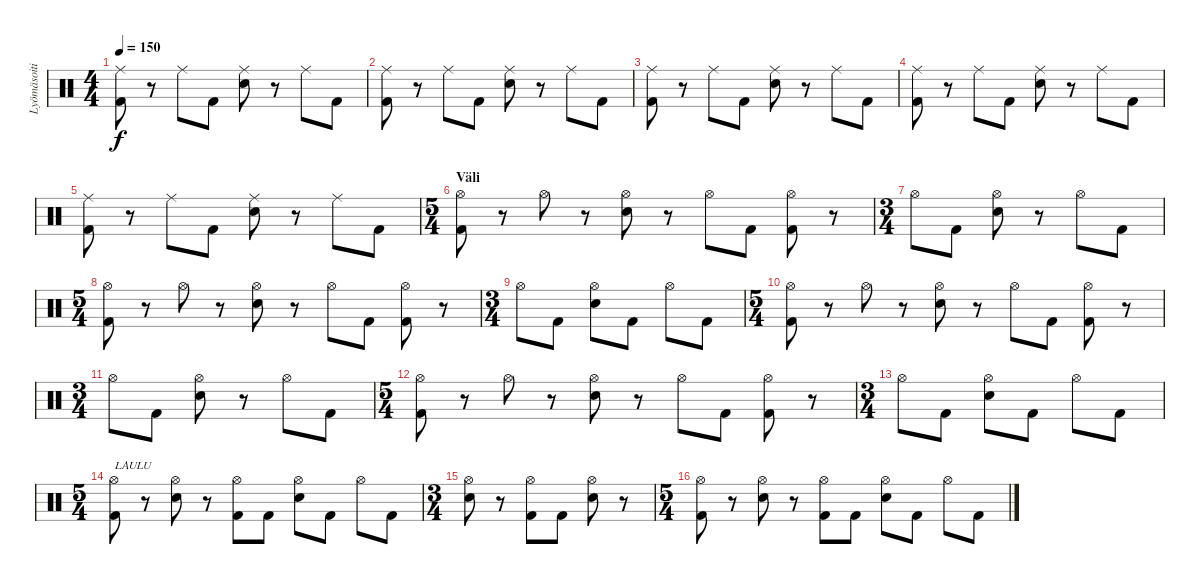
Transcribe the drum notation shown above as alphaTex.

\track ("Lyömäsoitin" "Lyömäsoiti") {instrument percussion}
\staff {score}
\articulation defaults
\ts (4 4)
\tempo 150
\clef neutral
\ks c
("Ride (middle)" "Kick (hit) 2").8{dy f} r.8 "Ride (middle)".8 "Kick (hit) 2".8 ("Ride (middle)" "Electric Snare (hit)").8 r.8 "Ride (middle)".8 "Kick (hit) 2".8 |
("Ride (middle)" "Kick (hit) 2").8 r.8 "Ride (middle)".8 "Kick (hit) 2".8 ("Ride (middle)" "Electric Snare (hit)").8 r.8 "Ride (middle)".8 "Kick (hit) 2".8 |
("Ride (middle)" "Kick (hit) 2").8 r.8 "Ride (middle)".8 "Kick (hit) 2".8 ("Ride (middle)" "Electric Snare (hit)").8 r.8 "Ride (middle)".8 "Kick (hit) 2".8 |
("Ride (middle)" "Kick (hit) 2").8 r.8 "Ride (middle)".8 "Kick (hit) 2".8 ("Ride (middle)" "Electric Snare (hit)").8 r.8 "Ride (middle)".8 "Kick (hit) 2".8 |
("Ride (middle)" "Kick (hit) 2").8 r.8 "Ride (middle)".8 "Kick (hit) 2".8 ("Ride (middle)" "Electric Snare (hit)").8 r.8 "Ride (middle)".8 "Kick (hit) 2".8 |
\ts (5 4)
\section ("" "Väli")
("Hi-Hat (open)" "Kick (hit) 2").8 r.8 "Hi-Hat (open)".8 r.8 ("Hi-Hat (open)" "Electric Snare (hit)").8 r.8 "Hi-Hat (open)".8 "Kick (hit) 2".8 ("Hi-Hat (open)" "Kick (hit) 2").8 r.8 |
\ts (3 4)
"Hi-Hat (open)".8 "Kick (hit) 2".8 ("Hi-Hat (open)" "Electric Snare (hit)").8 r.8 "Hi-Hat (open)".8 "Kick (hit) 2".8 |
\ts (5 4)
("Hi-Hat (open)" "Kick (hit) 2").8 r.8 "Hi-Hat (open)".8 r.8 ("Hi-Hat (open)" "Electric Snare (hit)").8 r.8 "Hi-Hat (open)".8 "Kick (hit) 2".8 ("Hi-Hat (open)" "Kick (hit) 2").8 r.8 |
\ts (3 4)
"Hi-Hat (open)".8 "Kick (hit) 2".8 ("Hi-Hat (open)" "Electric Snare (hit)").8 "Kick (hit) 2".8 "Hi-Hat (open)".8 "Kick (hit) 2".8 |
\ts (5 4)
("Hi-Hat (open)" "Kick (hit) 2").8 r.8 "Hi-Hat (open)".8 r.8 ("Hi-Hat (open)" "Electric Snare (hit)").8 r.8 "Hi-Hat (open)".8 "Kick (hit) 2".8 ("Hi-Hat (open)" "Kick (hit) 2").8 r.8 |
\ts (3 4)
"Hi-Hat (open)".8 "Kick (hit) 2".8 ("Hi-Hat (open)" "Electric Snare (hit)").8 r.8 "Hi-Hat (open)".8 "Kick (hit) 2".8 |
\ts (5 4)
("Hi-Hat (open)" "Kick (hit) 2").8 r.8 "Hi-Hat (open)".8 r.8 ("Hi-Hat (open)" "Electric Snare (hit)").8 r.8 "Hi-Hat (open)".8 "Kick (hit) 2".8 ("Hi-Hat (open)" "Kick (hit) 2").8 r.8 |
\ts (3 4)
"Hi-Hat (open)".8 "Kick (hit) 2".8 ("Hi-Hat (open)" "Electric Snare (hit)").8 "Kick (hit) 2".8 "Hi-Hat (open)".8 "Kick (hit) 2".8 |
\ts (5 4)
("Hi-Hat (open)" "Kick (hit) 2").8{txt "LAULU"} r.8 ("Hi-Hat (open)" "Electric Snare (hit)").8 r.8 ("Hi-Hat (open)" "Kick (hit) 2").8 "Kick (hit) 2".8 ("Hi-Hat (open)" "Electric Snare (hit)").8 "Kick (hit) 2".8 "Hi-Hat (open)".8 "Kick (hit) 2".8 |
\ts (3 4)
("Hi-Hat (open)" "Electric Snare (hit)").8 r.8 ("Hi-Hat (open)" "Kick (hit) 2").8 "Kick (hit) 2".8 ("Hi-Hat (open)" "Electric Snare (hit)").8 r.8 |
\ts (5 4)
("Hi-Hat (open)" "Kick (hit) 2").8 r.8 ("Hi-Hat (open)" "Electric Snare (hit)").8 r.8 ("Hi-Hat (open)" "Kick (hit) 2").8 "Kick (hit) 2".8 ("Hi-Hat (open)" "Electric Snare (hit)").8 "Kick (hit) 2".8 "Hi-Hat (open)".8 "Kick (hit) 2".8
